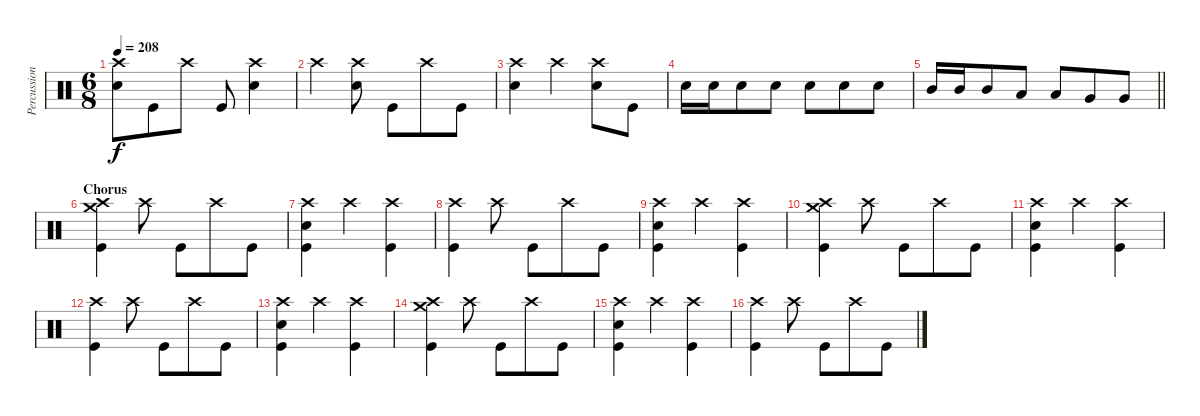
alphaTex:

\track ("Percussion" "Percussion") {instrument percussion}
\staff {score}
\articulation defaults
\ts (6 8)
\tempo 208
\clef neutral
\ks c
("Crash high (hit)" "Electric Snare (hit)").8{dy f} "Kick (hit)".8 "Crash high (hit)".8 "Kick (hit)".8 ("Crash high (hit)" "Electric Snare (hit)").4 |
"Crash high (hit)".4 ("Crash high (hit)" "Electric Snare (hit)").8 "Kick (hit)".8 "Crash high (hit)".8 "Kick (hit)".8 |
("Crash high (hit)" "Electric Snare (hit)").4 "Crash high (hit)".4 ("Crash high (hit)" "Electric Snare (hit)").8 "Kick (hit)".8 |
"Electric Snare (hit)".16 "Electric Snare (hit)".16 "Electric Snare (hit)".8 "Electric Snare (hit)".8 "Electric Snare (hit)".8 "Electric Snare (hit)".8 "Electric Snare (hit)".8 |
\barLineRight lightlight "Mid Tom (hit)".16 "Mid Tom (hit)".16 "Mid Tom (hit)".8 "Low Tom (hit)".8 "Low Tom (hit)".8 "Very Low Tom (hit)".8 "Very Low Tom (hit)".8
|
\section ("" "Chorus")
("Crash medium (hit)" "Crash high (hit)" "Kick (hit)").4 "Crash high (hit)".8 "Kick (hit)".8 "Crash high (hit)".8 "Kick (hit)".8 |
("Crash high (hit)" "Electric Snare (hit)" "Kick (hit)").4 "Crash high (hit)".4 ("Crash high (hit)" "Kick (hit)").4 |
("Crash high (hit)" "Kick (hit)").4 "Crash high (hit)".8 "Kick (hit)".8 "Crash high (hit)".8 "Kick (hit)".8 |
("Crash high (hit)" "Electric Snare (hit)" "Kick (hit)").4 "Crash high (hit)".4 ("Crash high (hit)" "Kick (hit)").4 |
("Crash medium (hit)" "Crash high (hit)" "Kick (hit)").4 "Crash high (hit)".8 "Kick (hit)".8 "Crash high (hit)".8 "Kick (hit)".8 |
("Crash high (hit)" "Electric Snare (hit)" "Kick (hit)").4 "Crash high (hit)".4 ("Crash high (hit)" "Kick (hit)").4 |
("Crash high (hit)" "Kick (hit)").4 "Crash high (hit)".8 "Kick (hit)".8 "Crash high (hit)".8 "Kick (hit)".8 |
("Crash high (hit)" "Electric Snare (hit)" "Kick (hit)").4 "Crash high (hit)".4 ("Crash high (hit)" "Kick (hit)").4 |
("Crash medium (hit)" "Crash high (hit)" "Kick (hit)").4 "Crash high (hit)".8 "Kick (hit)".8 "Crash high (hit)".8 "Kick (hit)".8 |
("Crash high (hit)" "Electric Snare (hit)" "Kick (hit)").4 "Crash high (hit)".4 ("Crash high (hit)" "Kick (hit)").4 |
("Crash high (hit)" "Kick (hit)").4 "Crash high (hit)".8 "Kick (hit)".8 "Crash high (hit)".8 "Kick (hit)".8
